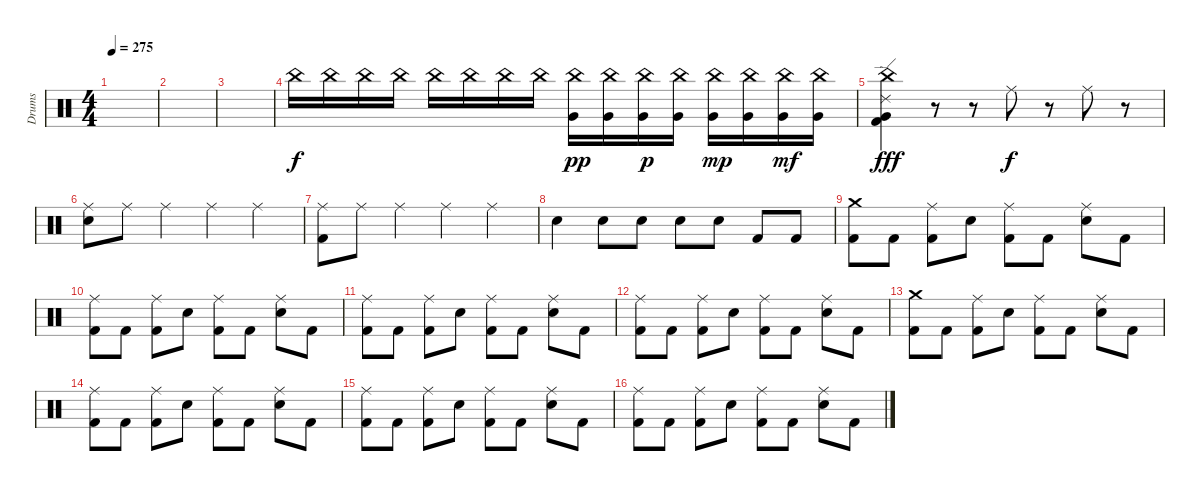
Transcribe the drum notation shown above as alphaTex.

\track ("Drums" "Drums") {instrument percussion}
\staff {score}
\articulation defaults
\ts (4 4)
\tempo 275
\clef neutral
\ks c
|
|
|
"China (hit)".16 "China (hit)".16 "China (hit)".16 "China (hit)".16 "China (hit)".16 "China (hit)".16 "China (hit)".16 "China (hit)".16 ("China (hit)" "Very Low Tom (hit)").16{dy pp} ("China (hit)" "Very Low Tom (hit)").16 ("China (hit)" "Very Low Tom (hit)").16{dy p} ("China (hit)" "Very Low Tom (hit)").16 ("China (hit)" "Very Low Tom (hit)").16{dy mp} ("China (hit)" "Very Low Tom (hit)").16 ("China (hit)" "Very Low Tom (hit)").16{dy mf} ("China (hit)" "Very Low Tom (hit)").16 |
("China (hit)" "Ride (edge) 2" "Very Low Tom (hit)" "Kick (hit) 2").4{dy fff} r.8 r.8 "Ride (middle)".8{dy f} r.8 "Ride (middle)".8 r.8 |
("Ride (middle)" "Electric Snare (hit)").8 "Ride (middle)".8 "Ride (middle)".4 "Ride (middle)".4 "Ride (middle)".4 |
("Ride (middle)" "Kick (hit) 2").8 "Ride (middle)".8 "Ride (middle)".4 "Ride (middle)".4 "Ride (middle)".4 |
"Electric Snare (hit)".4 "Electric Snare (hit)".8 "Electric Snare (hit)".8 "Electric Snare (hit)".8 "Electric Snare (hit)".8 "Kick (hit) 2".8 "Kick (hit) 2".8 |
("Crash medium (hit)" "Kick (hit) 2").8 "Kick (hit) 2".8 ("Ride (middle)" "Kick (hit) 2").8 "Electric Snare (hit)".8 ("Ride (middle)" "Kick (hit) 2").8 "Kick (hit) 2".8 ("Ride (middle)" "Electric Snare (hit)").8 "Kick (hit) 2".8 |
("Ride (middle)" "Kick (hit) 2").8 "Kick (hit) 2".8 ("Ride (middle)" "Kick (hit) 2").8 "Electric Snare (hit)".8 ("Ride (middle)" "Kick (hit) 2").8 "Kick (hit) 2".8 ("Ride (middle)" "Electric Snare (hit)").8 "Kick (hit) 2".8 |
("Ride (middle)" "Kick (hit) 2").8 "Kick (hit) 2".8 ("Ride (middle)" "Kick (hit) 2").8 "Electric Snare (hit)".8 ("Ride (middle)" "Kick (hit) 2").8 "Kick (hit) 2".8 ("Ride (middle)" "Electric Snare (hit)").8 "Kick (hit) 2".8 |
("Ride (middle)" "Kick (hit) 2").8 "Kick (hit) 2".8 ("Ride (middle)" "Kick (hit) 2").8 "Electric Snare (hit)".8 ("Ride (middle)" "Kick (hit) 2").8 "Kick (hit) 2".8 ("Ride (middle)" "Electric Snare (hit)").8 "Kick (hit) 2".8 |
("Crash medium (hit)" "Kick (hit) 2").8 "Kick (hit) 2".8 ("Ride (middle)" "Kick (hit) 2").8 "Electric Snare (hit)".8 ("Ride (middle)" "Kick (hit) 2").8 "Kick (hit) 2".8 ("Ride (middle)" "Electric Snare (hit)").8 "Kick (hit) 2".8 |
("Ride (middle)" "Kick (hit) 2").8 "Kick (hit) 2".8 ("Ride (middle)" "Kick (hit) 2").8 "Electric Snare (hit)".8 ("Ride (middle)" "Kick (hit) 2").8 "Kick (hit) 2".8 ("Ride (middle)" "Electric Snare (hit)").8 "Kick (hit) 2".8 |
("Ride (middle)" "Kick (hit) 2").8 "Kick (hit) 2".8 ("Ride (middle)" "Kick (hit) 2").8 "Electric Snare (hit)".8 ("Ride (middle)" "Kick (hit) 2").8 "Kick (hit) 2".8 ("Ride (middle)" "Electric Snare (hit)").8 "Kick (hit) 2".8 |
("Ride (middle)" "Kick (hit) 2").8 "Kick (hit) 2".8 ("Ride (middle)" "Kick (hit) 2").8 "Electric Snare (hit)".8 ("Ride (middle)" "Kick (hit) 2").8 "Kick (hit) 2".8 ("Ride (middle)" "Electric Snare (hit)").8 "Kick (hit) 2".8
